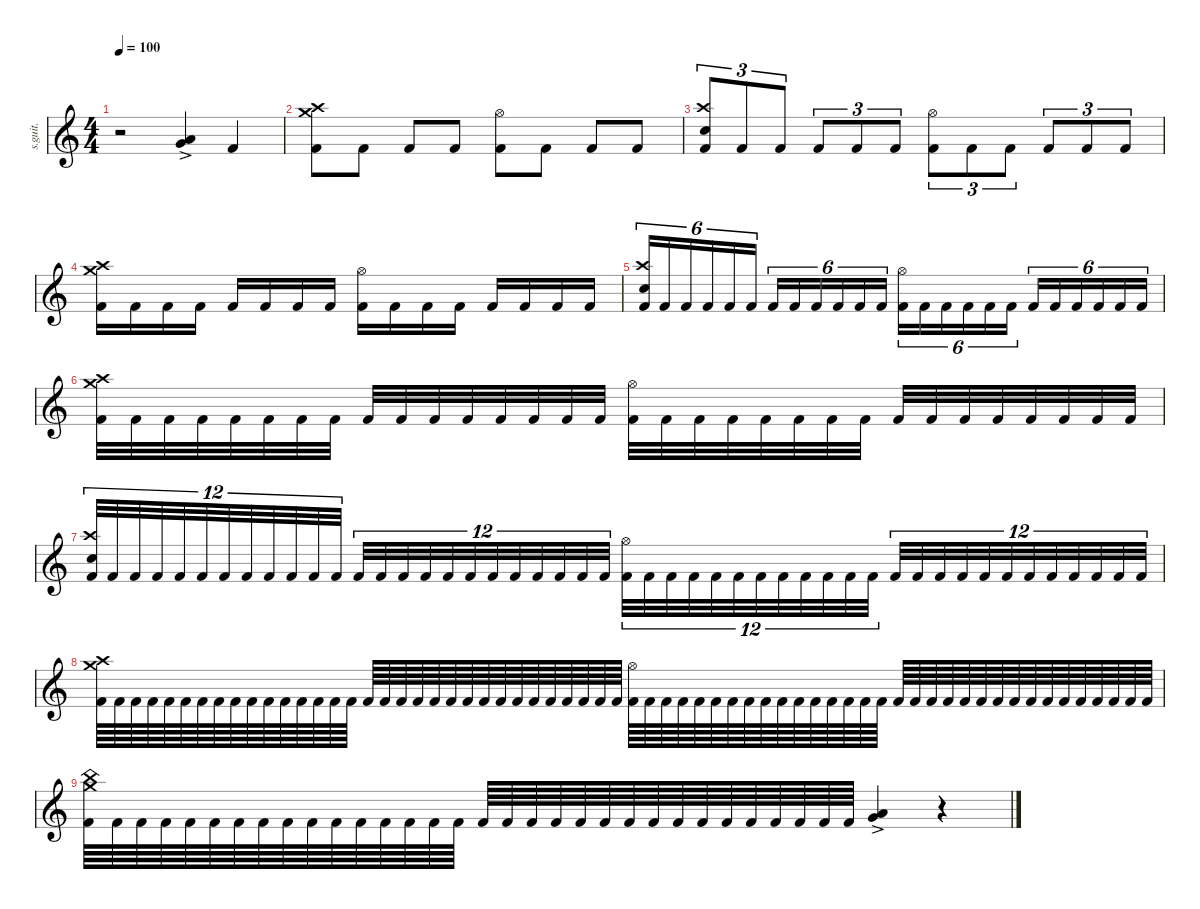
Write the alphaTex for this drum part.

\defaultSystemsLayout 4
\hideDynamics
\bracketExtendMode nobrackets
\track ("" "s.guit.") {instrument percussion}
\staff {score}
\articulation defaults
\ts (4 4)
\tempo 100
\clef g2
\ks c
r.2{dy ff} ("Low Tom (hit)"{ac} "Very Low Tom (hit)"{ac}).4 "Kick (hit) 2".4 |
("Crash medium (hit)" "Crash high (hit)" "Kick (hit) 2").8 "Kick (hit) 2".8 "Kick (hit) 2".8 "Kick (hit) 2".8 ("Hi-Hat (open)" "Kick (hit) 2").8 "Kick (hit) 2".8 "Kick (hit) 2".8 "Kick (hit) 2".8 |
("Crash high (hit)" "Snare (hit) 2" "Kick (hit) 2").8{tu (3 2)} "Kick (hit) 2".8{tu (3 2)} "Kick (hit) 2".8{tu (3 2)} "Kick (hit) 2".8{tu (3 2)} "Kick (hit) 2".8{tu (3 2)} "Kick (hit) 2".8{tu (3 2)} ("Hi-Hat (open)" "Kick (hit) 2").8{tu (3 2)} "Kick (hit) 2".8{tu (3 2)} "Kick (hit) 2".8{tu (3 2)} "Kick (hit) 2".8{tu (3 2)} "Kick (hit) 2".8{tu (3 2)} "Kick (hit) 2".8{tu (3 2)} |
("Crash medium (hit)" "Crash high (hit)" "Kick (hit) 2").16 "Kick (hit) 2".16 "Kick (hit) 2".16 "Kick (hit) 2".16 "Kick (hit) 2".16 "Kick (hit) 2".16 "Kick (hit) 2".16 "Kick (hit) 2".16 ("Hi-Hat (open)" "Kick (hit) 2").16 "Kick (hit) 2".16 "Kick (hit) 2".16 "Kick (hit) 2".16 "Kick (hit) 2".16 "Kick (hit) 2".16 "Kick (hit) 2".16 "Kick (hit) 2".16 |
("Crash high (hit)" "Snare (hit) 2" "Kick (hit) 2").16{tu (6 4)} "Kick (hit) 2".16{tu (6 4)} "Kick (hit) 2".16{tu (6 4)} "Kick (hit) 2".16{tu (6 4)} "Kick (hit) 2".16{tu (6 4)} "Kick (hit) 2".16{tu (6 4)} "Kick (hit) 2".16{tu (6 4)} "Kick (hit) 2".16{tu (6 4)} "Kick (hit) 2".16{tu (6 4)} "Kick (hit) 2".16{tu (6 4)} "Kick (hit) 2".16{tu (6 4)} "Kick (hit) 2".16{tu (6 4)} ("Hi-Hat (open)" "Kick (hit) 2").16{tu (6 4)} "Kick (hit) 2".16{tu (6 4)} "Kick (hit) 2".16{tu (6 4)} "Kick (hit) 2".16{tu (6 4)} "Kick (hit) 2".16{tu (6 4)} "Kick (hit) 2".16{tu (6 4)} "Kick (hit) 2".16{tu (6 4)} "Kick (hit) 2".16{tu (6 4)} "Kick (hit) 2".16{tu (6 4)} "Kick (hit) 2".16{tu (6 4)} "Kick (hit) 2".16{tu (6 4)} "Kick (hit) 2".16{tu (6 4)} |
("Crash medium (hit)" "Crash high (hit)" "Kick (hit) 2").32 "Kick (hit) 2".32 "Kick (hit) 2".32 "Kick (hit) 2".32 "Kick (hit) 2".32 "Kick (hit) 2".32 "Kick (hit) 2".32 "Kick (hit) 2".32 "Kick (hit) 2".32 "Kick (hit) 2".32 "Kick (hit) 2".32 "Kick (hit) 2".32 "Kick (hit) 2".32 "Kick (hit) 2".32 "Kick (hit) 2".32 "Kick (hit) 2".32 ("Hi-Hat (open)" "Kick (hit) 2").32 "Kick (hit) 2".32 "Kick (hit) 2".32 "Kick (hit) 2".32 "Kick (hit) 2".32 "Kick (hit) 2".32 "Kick (hit) 2".32 "Kick (hit) 2".32 "Kick (hit) 2".32 "Kick (hit) 2".32 "Kick (hit) 2".32 "Kick (hit) 2".32 "Kick (hit) 2".32 "Kick (hit) 2".32 "Kick (hit) 2".32 "Kick (hit) 2".32 |
("Crash high (hit)" "Snare (hit) 2" "Kick (hit) 2").32{tu (12 8)} "Kick (hit) 2".32{tu (12 8)} "Kick (hit) 2".32{tu (12 8)} "Kick (hit) 2".32{tu (12 8)} "Kick (hit) 2".32{tu (12 8)} "Kick (hit) 2".32{tu (12 8)} "Kick (hit) 2".32{tu (12 8)} "Kick (hit) 2".32{tu (12 8)} "Kick (hit) 2".32{tu (12 8)} "Kick (hit) 2".32{tu (12 8)} "Kick (hit) 2".32{tu (12 8)} "Kick (hit) 2".32{tu (12 8)} "Kick (hit) 2".32{tu (12 8)} "Kick (hit) 2".32{tu (12 8)} "Kick (hit) 2".32{tu (12 8)} "Kick (hit) 2".32{tu (12 8)} "Kick (hit) 2".32{tu (12 8)} "Kick (hit) 2".32{tu (12 8)} "Kick (hit) 2".32{tu (12 8)} "Kick (hit) 2".32{tu (12 8)} "Kick (hit) 2".32{tu (12 8)} "Kick (hit) 2".32{tu (12 8)} "Kick (hit) 2".32{tu (12 8)} "Kick (hit) 2".32{tu (12 8)} ("Hi-Hat (open)" "Kick (hit) 2").32{tu (12 8)} "Kick (hit) 2".32{tu (12 8)} "Kick (hit) 2".32{tu (12 8)} "Kick (hit) 2".32{tu (12 8)} "Kick (hit) 2".32{tu (12 8)} "Kick (hit) 2".32{tu (12 8)} "Kick (hit) 2".32{tu (12 8)} "Kick (hit) 2".32{tu (12 8)} "Kick (hit) 2".32{tu (12 8)} "Kick (hit) 2".32{tu (12 8)} "Kick (hit) 2".32{tu (12 8)} "Kick (hit) 2".32{tu (12 8)} "Kick (hit) 2".32{tu (12 8)} "Kick (hit) 2".32{tu (12 8)} "Kick (hit) 2".32{tu (12 8)} "Kick (hit) 2".32{tu (12 8)} "Kick (hit) 2".32{tu (12 8)} "Kick (hit) 2".32{tu (12 8)} "Kick (hit) 2".32{tu (12 8)} "Kick (hit) 2".32{tu (12 8)} "Kick (hit) 2".32{tu (12 8)} "Kick (hit) 2".32{tu (12 8)} "Kick (hit) 2".32{tu (12 8)} "Kick (hit) 2".32{tu (12 8)} |
("Crash medium (hit)" "Crash high (hit)" "Kick (hit) 2").64 "Kick (hit) 2".64 "Kick (hit) 2".64 "Kick (hit) 2".64 "Kick (hit) 2".64 "Kick (hit) 2".64 "Kick (hit) 2".64 "Kick (hit) 2".64 "Kick (hit) 2".64 "Kick (hit) 2".64 "Kick (hit) 2".64 "Kick (hit) 2".64 "Kick (hit) 2".64 "Kick (hit) 2".64 "Kick (hit) 2".64 "Kick (hit) 2".64 "Kick (hit) 2".64 "Kick (hit) 2".64 "Kick (hit) 2".64 "Kick (hit) 2".64 "Kick (hit) 2".64 "Kick (hit) 2".64 "Kick (hit) 2".64 "Kick (hit) 2".64 "Kick (hit) 2".64 "Kick (hit) 2".64 "Kick (hit) 2".64 "Kick (hit) 2".64 "Kick (hit) 2".64 "Kick (hit) 2".64 "Kick (hit) 2".64 "Kick (hit) 2".64 ("Hi-Hat (open)" "Kick (hit) 2").64 "Kick (hit) 2".64 "Kick (hit) 2".64 "Kick (hit) 2".64 "Kick (hit) 2".64 "Kick (hit) 2".64 "Kick (hit) 2".64 "Kick (hit) 2".64 "Kick (hit) 2".64 "Kick (hit) 2".64 "Kick (hit) 2".64 "Kick (hit) 2".64 "Kick (hit) 2".64 "Kick (hit) 2".64 "Kick (hit) 2".64 "Kick (hit) 2".64 "Kick (hit) 2".64 "Kick (hit) 2".64 "Kick (hit) 2".64 "Kick (hit) 2".64 "Kick (hit) 2".64 "Kick (hit) 2".64 "Kick (hit) 2".64 "Kick (hit) 2".64 "Kick (hit) 2".64 "Kick (hit) 2".64 "Kick (hit) 2".64 "Kick (hit) 2".64 "Kick (hit) 2".64 "Kick (hit) 2".64 "Kick (hit) 2".64 "Kick (hit) 2".64 |
("Crash medium (hit)" "China (hit)" "Kick (hit) 2").64 "Kick (hit) 2".64 "Kick (hit) 2".64 "Kick (hit) 2".64 "Kick (hit) 2".64 "Kick (hit) 2".64 "Kick (hit) 2".64 "Kick (hit) 2".64 "Kick (hit) 2".64 "Kick (hit) 2".64 "Kick (hit) 2".64 "Kick (hit) 2".64 "Kick (hit) 2".64 "Kick (hit) 2".64 "Kick (hit) 2".64 "Kick (hit) 2".64 "Kick (hit) 2".64 "Kick (hit) 2".64 "Kick (hit) 2".64 "Kick (hit) 2".64 "Kick (hit) 2".64 "Kick (hit) 2".64 "Kick (hit) 2".64 "Kick (hit) 2".64 "Kick (hit) 2".64 "Kick (hit) 2".64 "Kick (hit) 2".64 "Kick (hit) 2".64 "Kick (hit) 2".64 "Kick (hit) 2".64 "Kick (hit) 2".64 "Kick (hit) 2".64 ("Low Tom (hit)"{ac} "Very Low Tom (hit)"{ac}).4 r.4
